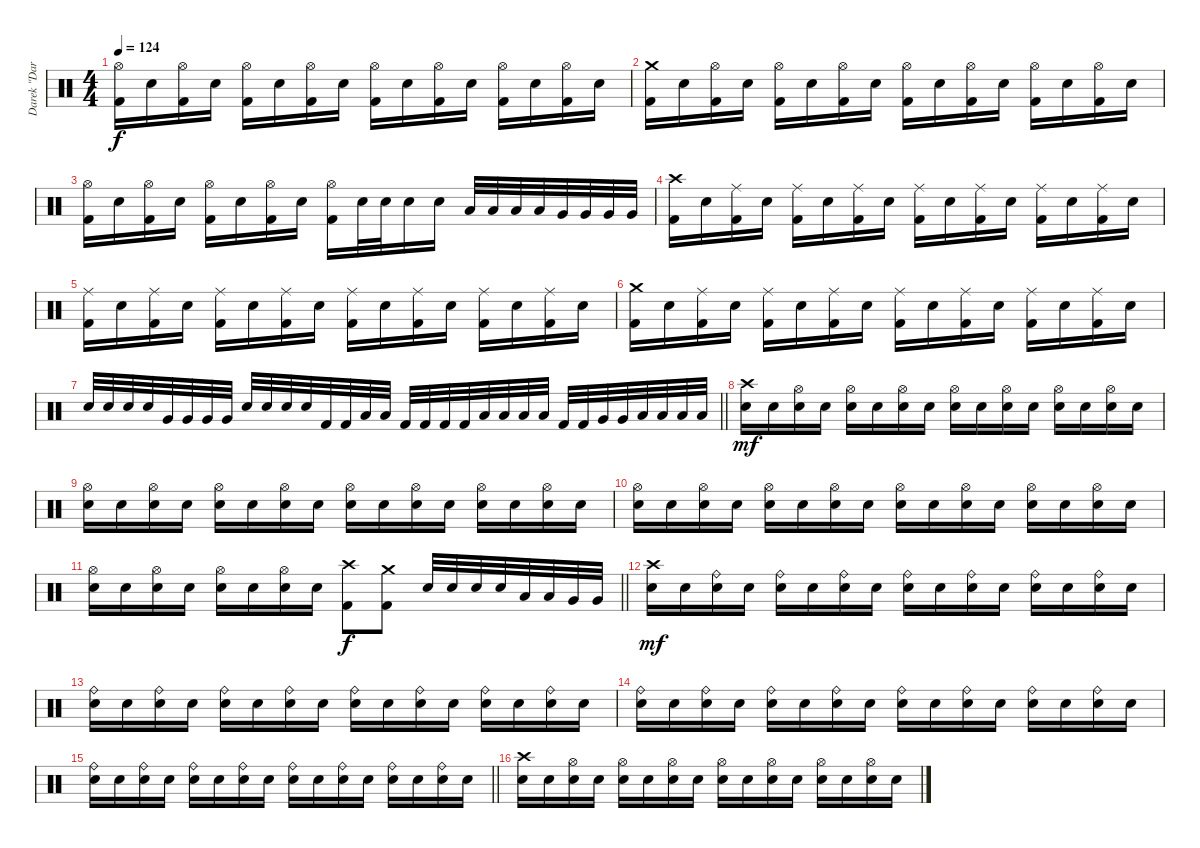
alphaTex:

\track ("Darek \"Daray\" Brzozowski " "Darek \"Dar") {instrument percussion}
\staff {score}
\articulation defaults
\ts (4 4)
\tempo 124
\clef neutral
\ks c
("Hi-Hat (open)" "Kick (hit) 2").16{dy f} "Electric Snare (hit)".16 ("Hi-Hat (open)" "Kick (hit) 2").16 "Electric Snare (hit)".16 ("Hi-Hat (open)" "Kick (hit) 2").16 "Electric Snare (hit)".16 ("Hi-Hat (open)" "Kick (hit) 2").16 "Electric Snare (hit)".16 ("Hi-Hat (open)" "Kick (hit) 2").16 "Electric Snare (hit)".16 ("Hi-Hat (open)" "Kick (hit) 2").16 "Electric Snare (hit)".16 ("Hi-Hat (open)" "Kick (hit) 2").16 "Electric Snare (hit)".16 ("Hi-Hat (open)" "Kick (hit) 2").16 "Electric Snare (hit)".16 |
("Crash medium (hit)" "Kick (hit) 2").16 "Electric Snare (hit)".16 ("Hi-Hat (open)" "Kick (hit) 2").16 "Electric Snare (hit)".16 ("Hi-Hat (open)" "Kick (hit) 2").16 "Electric Snare (hit)".16 ("Hi-Hat (open)" "Kick (hit) 2").16 "Electric Snare (hit)".16 ("Hi-Hat (open)" "Kick (hit) 2").16 "Electric Snare (hit)".16 ("Hi-Hat (open)" "Kick (hit) 2").16 "Electric Snare (hit)".16 ("Hi-Hat (open)" "Kick (hit) 2").16 "Electric Snare (hit)".16 ("Hi-Hat (open)" "Kick (hit) 2").16 "Electric Snare (hit)".16 |
("Hi-Hat (open)" "Kick (hit) 2").16 "Electric Snare (hit)".16 ("Hi-Hat (open)" "Kick (hit) 2").16 "Electric Snare (hit)".16 ("Hi-Hat (open)" "Kick (hit) 2").16 "Electric Snare (hit)".16 ("Hi-Hat (open)" "Kick (hit) 2").16 "Electric Snare (hit)".16 ("Hi-Hat (open)" "Kick (hit) 2").16 "Electric Snare (hit)".32 "Electric Snare (hit)".32 "Electric Snare (hit)".16 "Electric Snare (hit)".16 "Low Tom (hit)".32 "Low Tom (hit)".32 "Low Tom (hit)".32 "Low Tom (hit)".32 "Very Low Tom (hit)".32 "Very Low Tom (hit)".32 "Very Low Tom (hit)".32 "Very Low Tom (hit)".32 |
("Crash high (hit)" "Kick (hit) 2").16 "Electric Snare (hit)".16 ("Ride (middle)" "Kick (hit) 2").16 "Electric Snare (hit)".16 ("Ride (middle)" "Kick (hit) 2").16 "Electric Snare (hit)".16 ("Ride (middle)" "Kick (hit) 2").16 "Electric Snare (hit)".16 ("Ride (middle)" "Kick (hit) 2").16 "Electric Snare (hit)".16 ("Ride (middle)" "Kick (hit) 2").16 "Electric Snare (hit)".16 ("Ride (middle)" "Kick (hit) 2").16 "Electric Snare (hit)".16 ("Ride (middle)" "Kick (hit) 2").16 "Electric Snare (hit)".16 |
("Ride (middle)" "Kick (hit) 2").16 "Electric Snare (hit)".16 ("Ride (middle)" "Kick (hit) 2").16 "Electric Snare (hit)".16 ("Ride (middle)" "Kick (hit) 2").16 "Electric Snare (hit)".16 ("Ride (middle)" "Kick (hit) 2").16 "Electric Snare (hit)".16 ("Ride (middle)" "Kick (hit) 2").16 "Electric Snare (hit)".16 ("Ride (middle)" "Kick (hit) 2").16 "Electric Snare (hit)".16 ("Ride (middle)" "Kick (hit) 2").16 "Electric Snare (hit)".16 ("Ride (middle)" "Kick (hit) 2").16 "Electric Snare (hit)".16 |
("Crash medium (hit)" "Kick (hit) 2").16 "Electric Snare (hit)".16 ("Ride (middle)" "Kick (hit) 2").16 "Electric Snare (hit)".16 ("Ride (middle)" "Kick (hit) 2").16 "Electric Snare (hit)".16 ("Ride (middle)" "Kick (hit) 2").16 "Electric Snare (hit)".16 ("Ride (middle)" "Kick (hit) 2").16 "Electric Snare (hit)".16 ("Ride (middle)" "Kick (hit) 2").16 "Electric Snare (hit)".16 ("Ride (middle)" "Kick (hit) 2").16 "Electric Snare (hit)".16 ("Ride (middle)" "Kick (hit) 2").16 "Electric Snare (hit)".16 |
\barLineRight lightlight "Electric Snare (hit)".32 "Electric Snare (hit)".32 "Electric Snare (hit)".32 "Electric Snare (hit)".32 "Very Low Tom (hit)".32 "Very Low Tom (hit)".32 "Very Low Tom (hit)".32 "Very Low Tom (hit)".32 "Electric Snare (hit)".32 "Electric Snare (hit)".32 "Electric Snare (hit)".32 "Electric Snare (hit)".32 "Kick (hit) 2".32 "Kick (hit) 2".32 "Low Floor Tom (hit)".32 "Low Floor Tom (hit)".32 "Kick (hit) 2".32 "Kick (hit) 2".32 "Kick (hit) 2".32 "Kick (hit) 2".32 "Low Tom (hit)".32 "Low Tom (hit)".32 "Low Tom (hit)".32 "Low Tom (hit)".32 "Kick (hit) 2".32 "Kick (hit) 2".32 "Very Low Tom (hit)".32 "Very Low Tom (hit)".32 "Low Floor Tom (hit)".32 "Low Floor Tom (hit)".32 "Low Floor Tom (hit)".32 "Low Floor Tom (hit)".32
|
("Crash high (hit)" "Electric Snare (hit)").16{dy mf} "Electric Snare (hit)".16 ("Hi-Hat (open)" "Electric Snare (hit)").16 "Electric Snare (hit)".16 ("Hi-Hat (open)" "Electric Snare (hit)").16 "Electric Snare (hit)".16 ("Hi-Hat (open)" "Electric Snare (hit)").16 "Electric Snare (hit)".16 ("Hi-Hat (open)" "Electric Snare (hit)").16 "Electric Snare (hit)".16 ("Hi-Hat (open)" "Electric Snare (hit)").16 "Electric Snare (hit)".16 ("Hi-Hat (open)" "Electric Snare (hit)").16 "Electric Snare (hit)".16 ("Hi-Hat (open)" "Electric Snare (hit)").16 "Electric Snare (hit)".16 |
("Hi-Hat (open)" "Electric Snare (hit)").16 "Electric Snare (hit)".16 ("Hi-Hat (open)" "Electric Snare (hit)").16 "Electric Snare (hit)".16 ("Hi-Hat (open)" "Electric Snare (hit)").16 "Electric Snare (hit)".16 ("Hi-Hat (open)" "Electric Snare (hit)").16 "Electric Snare (hit)".16 ("Hi-Hat (open)" "Electric Snare (hit)").16 "Electric Snare (hit)".16 ("Hi-Hat (open)" "Electric Snare (hit)").16 "Electric Snare (hit)".16 ("Hi-Hat (open)" "Electric Snare (hit)").16 "Electric Snare (hit)".16 ("Hi-Hat (open)" "Electric Snare (hit)").16 "Electric Snare (hit)".16 |
("Hi-Hat (open)" "Electric Snare (hit)").16 "Electric Snare (hit)".16 ("Hi-Hat (open)" "Electric Snare (hit)").16 "Electric Snare (hit)".16 ("Hi-Hat (open)" "Electric Snare (hit)").16 "Electric Snare (hit)".16 ("Hi-Hat (open)" "Electric Snare (hit)").16 "Electric Snare (hit)".16 ("Hi-Hat (open)" "Electric Snare (hit)").16 "Electric Snare (hit)".16 ("Hi-Hat (open)" "Electric Snare (hit)").16 "Electric Snare (hit)".16 ("Hi-Hat (open)" "Electric Snare (hit)").16 "Electric Snare (hit)".16 ("Hi-Hat (open)" "Electric Snare (hit)").16 "Electric Snare (hit)".16 |
\barLineRight lightlight
("Hi-Hat (open)" "Electric Snare (hit)").16 "Electric Snare (hit)".16 ("Hi-Hat (open)" "Electric Snare (hit)").16 "Electric Snare (hit)".16 ("Hi-Hat (open)" "Electric Snare (hit)").16 "Electric Snare (hit)".16 ("Hi-Hat (open)" "Electric Snare (hit)").16 "Electric Snare (hit)".16 ("Crash high (hit)" "Kick (hit) 2").8{dy f} ("Crash medium (hit)" "Kick (hit) 2").8 "Electric Snare (hit)".32 "Electric Snare (hit)".32 "Electric Snare (hit)".32 "Electric Snare (hit)".32 "Low Tom (hit)".32 "Low Tom (hit)".32 "Very Low Tom (hit)".32 "Very Low Tom (hit)".32 |
("Crash high (hit)" "Electric Snare (hit)").16{dy mf} "Electric Snare (hit)".16 ("Ride (bell)" "Electric Snare (hit)").16 "Electric Snare (hit)".16 ("Ride (bell)" "Electric Snare (hit)").16 "Electric Snare (hit)".16 ("Ride (bell)" "Electric Snare (hit)").16 "Electric Snare (hit)".16 ("Ride (bell)" "Electric Snare (hit)").16 "Electric Snare (hit)".16 ("Ride (bell)" "Electric Snare (hit)").16 "Electric Snare (hit)".16 ("Ride (bell)" "Electric Snare (hit)").16 "Electric Snare (hit)".16 ("Ride (bell)" "Electric Snare (hit)").16 "Electric Snare (hit)".16 |
("Ride (bell)" "Electric Snare (hit)").16 "Electric Snare (hit)".16 ("Ride (bell)" "Electric Snare (hit)").16 "Electric Snare (hit)".16 ("Ride (bell)" "Electric Snare (hit)").16 "Electric Snare (hit)".16 ("Ride (bell)" "Electric Snare (hit)").16 "Electric Snare (hit)".16 ("Ride (bell)" "Electric Snare (hit)").16 "Electric Snare (hit)".16 ("Ride (bell)" "Electric Snare (hit)").16 "Electric Snare (hit)".16 ("Ride (bell)" "Electric Snare (hit)").16 "Electric Snare (hit)".16 ("Ride (bell)" "Electric Snare (hit)").16 "Electric Snare (hit)".16 |
("Ride (bell)" "Electric Snare (hit)").16 "Electric Snare (hit)".16 ("Ride (bell)" "Electric Snare (hit)").16 "Electric Snare (hit)".16 ("Ride (bell)" "Electric Snare (hit)").16 "Electric Snare (hit)".16 ("Ride (bell)" "Electric Snare (hit)").16 "Electric Snare (hit)".16 ("Ride (bell)" "Electric Snare (hit)").16 "Electric Snare (hit)".16 ("Ride (bell)" "Electric Snare (hit)").16 "Electric Snare (hit)".16 ("Ride (bell)" "Electric Snare (hit)").16 "Electric Snare (hit)".16 ("Ride (bell)" "Electric Snare (hit)").16 "Electric Snare (hit)".16 |
\barLineRight lightlight
("Ride (bell)" "Electric Snare (hit)").16 "Electric Snare (hit)".16 ("Ride (bell)" "Electric Snare (hit)").16 "Electric Snare (hit)".16 ("Ride (bell)" "Electric Snare (hit)").16 "Electric Snare (hit)".16 ("Ride (bell)" "Electric Snare (hit)").16 "Electric Snare (hit)".16 ("Ride (bell)" "Electric Snare (hit)").16 "Electric Snare (hit)".16 ("Ride (bell)" "Electric Snare (hit)").16 "Electric Snare (hit)".16 ("Ride (bell)" "Electric Snare (hit)").16 "Electric Snare (hit)".16 ("Ride (bell)" "Electric Snare (hit)").16 "Electric Snare (hit)".16 |
("Crash high (hit)" "Electric Snare (hit)").16 "Electric Snare (hit)".16 ("Hi-Hat (open)" "Electric Snare (hit)").16 "Electric Snare (hit)".16 ("Hi-Hat (open)" "Electric Snare (hit)").16 "Electric Snare (hit)".16 ("Hi-Hat (open)" "Electric Snare (hit)").16 "Electric Snare (hit)".16 ("Hi-Hat (open)" "Electric Snare (hit)").16 "Electric Snare (hit)".16 ("Hi-Hat (open)" "Electric Snare (hit)").16 "Electric Snare (hit)".16 ("Hi-Hat (open)" "Electric Snare (hit)").16 "Electric Snare (hit)".16 ("Hi-Hat (open)" "Electric Snare (hit)").16 "Electric Snare (hit)".16
